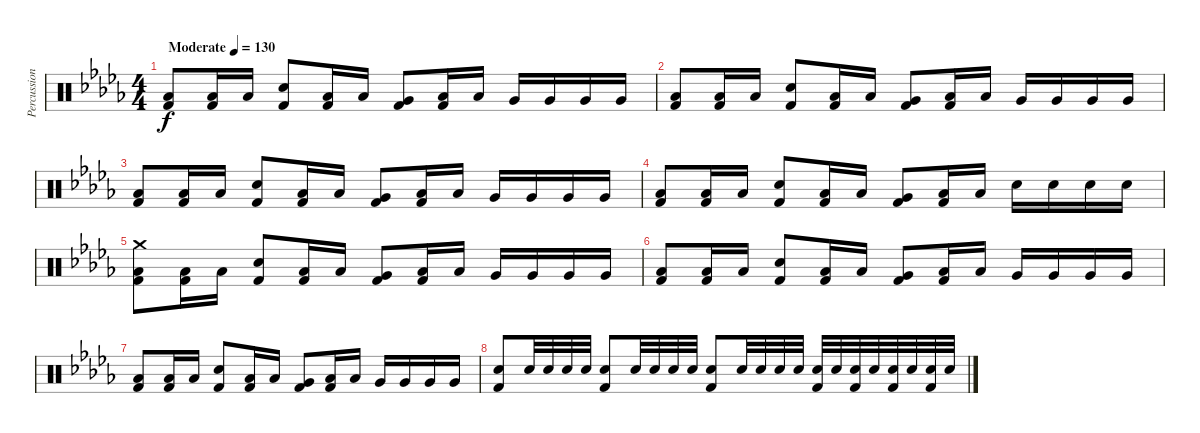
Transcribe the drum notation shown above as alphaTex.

\track ("Percussion" "Percussion") {instrument percussion}
\staff {score}
\articulation defaults
\ts (4 4)
\tempo (130 "Moderate")
\clef neutral
\ks db
("Low Tom (hit)" "Kick (hit) 2").8{dy f} ("Low Tom (hit)" "Kick (hit) 2").16 "Low Tom (hit)".16 ("Electric Snare (hit)" "Kick (hit) 2").8 ("Low Tom (hit)" "Kick (hit) 2").16 "Low Tom (hit)".16 ("Very Low Tom (hit)" "Kick (hit) 2").8 ("Low Tom (hit)" "Kick (hit) 2").16 "Low Tom (hit)".16 "Very Low Tom (hit)".16 "Very Low Tom (hit)".16 "Very Low Tom (hit)".16 "Very Low Tom (hit)".16 |
("Low Tom (hit)" "Kick (hit) 2").8 ("Low Tom (hit)" "Kick (hit) 2").16 "Low Tom (hit)".16 ("Electric Snare (hit)" "Kick (hit) 2").8 ("Low Tom (hit)" "Kick (hit) 2").16 "Low Tom (hit)".16 ("Very Low Tom (hit)" "Kick (hit) 2").8 ("Low Tom (hit)" "Kick (hit) 2").16 "Low Tom (hit)".16 "Very Low Tom (hit)".16 "Very Low Tom (hit)".16 "Very Low Tom (hit)".16 "Very Low Tom (hit)".16 |
("Low Tom (hit)" "Kick (hit) 2").8 ("Low Tom (hit)" "Kick (hit) 2").16 "Low Tom (hit)".16 ("Electric Snare (hit)" "Kick (hit) 2").8 ("Low Tom (hit)" "Kick (hit) 2").16 "Low Tom (hit)".16 ("Very Low Tom (hit)" "Kick (hit) 2").8 ("Low Tom (hit)" "Kick (hit) 2").16 "Low Tom (hit)".16 "Very Low Tom (hit)".16 "Very Low Tom (hit)".16 "Very Low Tom (hit)".16 "Very Low Tom (hit)".16 |
("Low Tom (hit)" "Kick (hit) 2").8 ("Low Tom (hit)" "Kick (hit) 2").16 "Low Tom (hit)".16 ("Electric Snare (hit)" "Kick (hit) 2").8 ("Low Tom (hit)" "Kick (hit) 2").16 "Low Tom (hit)".16 ("Very Low Tom (hit)" "Kick (hit) 2").8 ("Low Tom (hit)" "Kick (hit) 2").16 "Low Tom (hit)".16 "Electric Snare (hit)".16 "Electric Snare (hit)".16 "Electric Snare (hit)".16 "Electric Snare (hit)".16 |
("Crash medium (hit)" "Low Tom (hit)" "Kick (hit) 2").8 ("Low Tom (hit)" "Kick (hit) 2").16 "Low Tom (hit)".16 ("Electric Snare (hit)" "Kick (hit) 2").8 ("Low Tom (hit)" "Kick (hit) 2").16 "Low Tom (hit)".16 ("Very Low Tom (hit)" "Kick (hit) 2").8 ("Low Tom (hit)" "Kick (hit) 2").16 "Low Tom (hit)".16 "Very Low Tom (hit)".16 "Very Low Tom (hit)".16 "Very Low Tom (hit)".16 "Very Low Tom (hit)".16 |
("Low Tom (hit)" "Kick (hit) 2").8 ("Low Tom (hit)" "Kick (hit) 2").16 "Low Tom (hit)".16 ("Electric Snare (hit)" "Kick (hit) 2").8 ("Low Tom (hit)" "Kick (hit) 2").16 "Low Tom (hit)".16 ("Very Low Tom (hit)" "Kick (hit) 2").8 ("Low Tom (hit)" "Kick (hit) 2").16 "Low Tom (hit)".16 "Very Low Tom (hit)".16 "Very Low Tom (hit)".16 "Very Low Tom (hit)".16 "Very Low Tom (hit)".16 |
("Low Tom (hit)" "Kick (hit) 2").8 ("Low Tom (hit)" "Kick (hit) 2").16 "Low Tom (hit)".16 ("Electric Snare (hit)" "Kick (hit) 2").8 ("Low Tom (hit)" "Kick (hit) 2").16 "Low Tom (hit)".16 ("Very Low Tom (hit)" "Kick (hit) 2").8 ("Low Tom (hit)" "Kick (hit) 2").16 "Low Tom (hit)".16 "Very Low Tom (hit)".16 "Very Low Tom (hit)".16 "Very Low Tom (hit)".16 "Very Low Tom (hit)".16 |
("Electric Snare (hit)" "Kick (hit) 2").8 "Electric Snare (hit)".32 "Electric Snare (hit)".32 "Electric Snare (hit)".32 "Electric Snare (hit)".32 ("Electric Snare (hit)" "Kick (hit) 2").8 "Electric Snare (hit)".32 "Electric Snare (hit)".32 "Electric Snare (hit)".32 "Electric Snare (hit)".32 ("Electric Snare (hit)" "Kick (hit) 2").8 "Electric Snare (hit)".32 "Electric Snare (hit)".32 "Electric Snare (hit)".32 "Electric Snare (hit)".32 ("Electric Snare (hit)" "Kick (hit) 2").32 "Electric Snare (hit)".32 ("Electric Snare (hit)" "Kick (hit) 2").32 "Electric Snare (hit)".32 ("Electric Snare (hit)" "Kick (hit) 2").32 "Electric Snare (hit)".32 ("Electric Snare (hit)" "Kick (hit) 2").32 "Electric Snare (hit)".32
